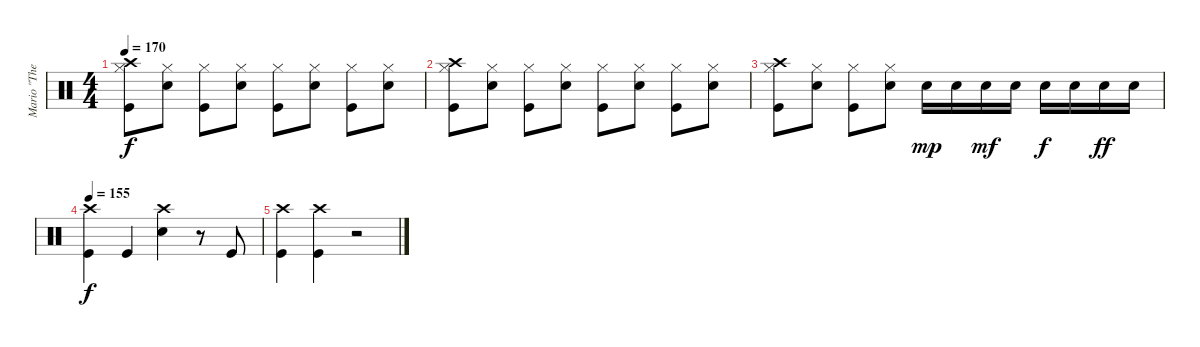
\track ("Mario \"The Dremmel\" Hirt" "Mario \"The") {instrument percussion}
\staff {score}
\articulation defaults
\ts (4 4)
\tempo 170
\clef neutral
\ks c
("Crash high (hit)" "Hi-Hat (closed)" "Kick (hit)").8{dy f} ("Hi-Hat (closed)" "Electric Snare (hit)").8 ("Hi-Hat (closed)" "Kick (hit)").8 ("Hi-Hat (closed)" "Electric Snare (hit)").8 ("Hi-Hat (closed)" "Kick (hit)").8 ("Hi-Hat (closed)" "Electric Snare (hit)").8 ("Hi-Hat (closed)" "Kick (hit)").8 ("Hi-Hat (closed)" "Electric Snare (hit)").8 |
("Crash high (hit)" "Hi-Hat (closed)" "Kick (hit)").8 ("Hi-Hat (closed)" "Electric Snare (hit)").8 ("Hi-Hat (closed)" "Kick (hit)").8 ("Hi-Hat (closed)" "Electric Snare (hit)").8 ("Hi-Hat (closed)" "Kick (hit)").8 ("Hi-Hat (closed)" "Electric Snare (hit)").8 ("Hi-Hat (closed)" "Kick (hit)").8 ("Hi-Hat (closed)" "Electric Snare (hit)").8 |
("Crash high (hit)" "Hi-Hat (closed)" "Kick (hit)").8 ("Hi-Hat (closed)" "Electric Snare (hit)").8 ("Hi-Hat (closed)" "Kick (hit)").8 ("Hi-Hat (closed)" "Electric Snare (hit)").8 "Electric Snare (hit)".16{dy mp} "Electric Snare (hit)".16 "Electric Snare (hit)".16{dy mf} "Electric Snare (hit)".16 "Electric Snare (hit)".16{dy f} "Electric Snare (hit)".16 "Electric Snare (hit)".16{dy ff} "Electric Snare (hit)".16 |
\tempo 155
("Crash high (hit)" "Kick (hit)").4{dy f} "Kick (hit)".4 ("Crash high (hit)" "Electric Snare (hit)").4 r.8 "Kick (hit)".8 |
("Crash high (hit)" "Kick (hit)").4 ("Crash high (hit)" "Kick (hit)").4 r.2
